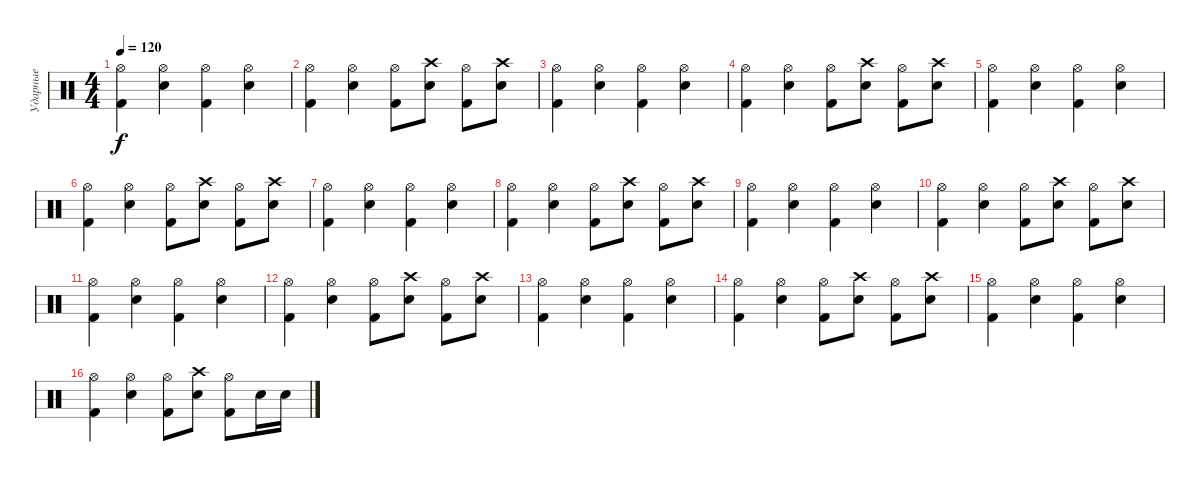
\track ("Ударные" "Ударные") {instrument percussion}
\staff {score}
\articulation defaults
\ts (4 4)
\tempo 120
\clef neutral
\ks c
("Hi-Hat (open)" "Kick (hit) 2").4{dy f} ("Hi-Hat (open)" "Electric Snare (hit)").4 ("Hi-Hat (open)" "Kick (hit) 2").4 ("Hi-Hat (open)" "Electric Snare (hit)").4 |
("Hi-Hat (open)" "Kick (hit) 2").4 ("Hi-Hat (open)" "Electric Snare (hit)").4 ("Hi-Hat (open)" "Kick (hit) 2").8 ("Crash high (hit)" "Electric Snare (hit)").8 ("Hi-Hat (open)" "Kick (hit) 2").8 ("Crash high (hit)" "Electric Snare (hit)").8 |
("Hi-Hat (open)" "Kick (hit) 2").4 ("Hi-Hat (open)" "Electric Snare (hit)").4 ("Hi-Hat (open)" "Kick (hit) 2").4 ("Hi-Hat (open)" "Electric Snare (hit)").4 |
("Hi-Hat (open)" "Kick (hit) 2").4 ("Hi-Hat (open)" "Electric Snare (hit)").4 ("Hi-Hat (open)" "Kick (hit) 2").8 ("Crash high (hit)" "Electric Snare (hit)").8 ("Hi-Hat (open)" "Kick (hit) 2").8 ("Crash high (hit)" "Electric Snare (hit)").8 |
("Hi-Hat (open)" "Kick (hit) 2").4 ("Hi-Hat (open)" "Electric Snare (hit)").4 ("Hi-Hat (open)" "Kick (hit) 2").4 ("Hi-Hat (open)" "Electric Snare (hit)").4 |
("Hi-Hat (open)" "Kick (hit) 2").4 ("Hi-Hat (open)" "Electric Snare (hit)").4 ("Hi-Hat (open)" "Kick (hit) 2").8 ("Crash high (hit)" "Electric Snare (hit)").8 ("Hi-Hat (open)" "Kick (hit) 2").8 ("Crash high (hit)" "Electric Snare (hit)").8 |
("Hi-Hat (open)" "Kick (hit) 2").4 ("Hi-Hat (open)" "Electric Snare (hit)").4 ("Hi-Hat (open)" "Kick (hit) 2").4 ("Hi-Hat (open)" "Electric Snare (hit)").4 |
("Hi-Hat (open)" "Kick (hit) 2").4 ("Hi-Hat (open)" "Electric Snare (hit)").4 ("Hi-Hat (open)" "Kick (hit) 2").8 ("Crash high (hit)" "Electric Snare (hit)").8 ("Hi-Hat (open)" "Kick (hit) 2").8 ("Crash high (hit)" "Electric Snare (hit)").8 |
("Hi-Hat (open)" "Kick (hit) 2").4 ("Hi-Hat (open)" "Electric Snare (hit)").4 ("Hi-Hat (open)" "Kick (hit) 2").4 ("Hi-Hat (open)" "Electric Snare (hit)").4 |
("Hi-Hat (open)" "Kick (hit) 2").4 ("Hi-Hat (open)" "Electric Snare (hit)").4 ("Hi-Hat (open)" "Kick (hit) 2").8 ("Crash high (hit)" "Electric Snare (hit)").8 ("Hi-Hat (open)" "Kick (hit) 2").8 ("Crash high (hit)" "Electric Snare (hit)").8 |
("Hi-Hat (open)" "Kick (hit) 2").4 ("Hi-Hat (open)" "Electric Snare (hit)").4 ("Hi-Hat (open)" "Kick (hit) 2").4 ("Hi-Hat (open)" "Electric Snare (hit)").4 |
("Hi-Hat (open)" "Kick (hit) 2").4 ("Hi-Hat (open)" "Electric Snare (hit)").4 ("Hi-Hat (open)" "Kick (hit) 2").8 ("Crash high (hit)" "Electric Snare (hit)").8 ("Hi-Hat (open)" "Kick (hit) 2").8 ("Crash high (hit)" "Electric Snare (hit)").8 |
("Hi-Hat (open)" "Kick (hit) 2").4 ("Hi-Hat (open)" "Electric Snare (hit)").4 ("Hi-Hat (open)" "Kick (hit) 2").4 ("Hi-Hat (open)" "Electric Snare (hit)").4 |
("Hi-Hat (open)" "Kick (hit) 2").4 ("Hi-Hat (open)" "Electric Snare (hit)").4 ("Hi-Hat (open)" "Kick (hit) 2").8 ("Crash high (hit)" "Electric Snare (hit)").8 ("Hi-Hat (open)" "Kick (hit) 2").8 ("Crash high (hit)" "Electric Snare (hit)").8 |
("Hi-Hat (open)" "Kick (hit) 2").4 ("Hi-Hat (open)" "Electric Snare (hit)").4 ("Hi-Hat (open)" "Kick (hit) 2").4 ("Hi-Hat (open)" "Electric Snare (hit)").4 |
("Hi-Hat (open)" "Kick (hit) 2").4 ("Hi-Hat (open)" "Electric Snare (hit)").4 ("Hi-Hat (open)" "Kick (hit) 2").8 ("Crash high (hit)" "Electric Snare (hit)").8 ("Hi-Hat (open)" "Kick (hit) 2").8 "Electric Snare (hit)".16 "Electric Snare (hit)".16
